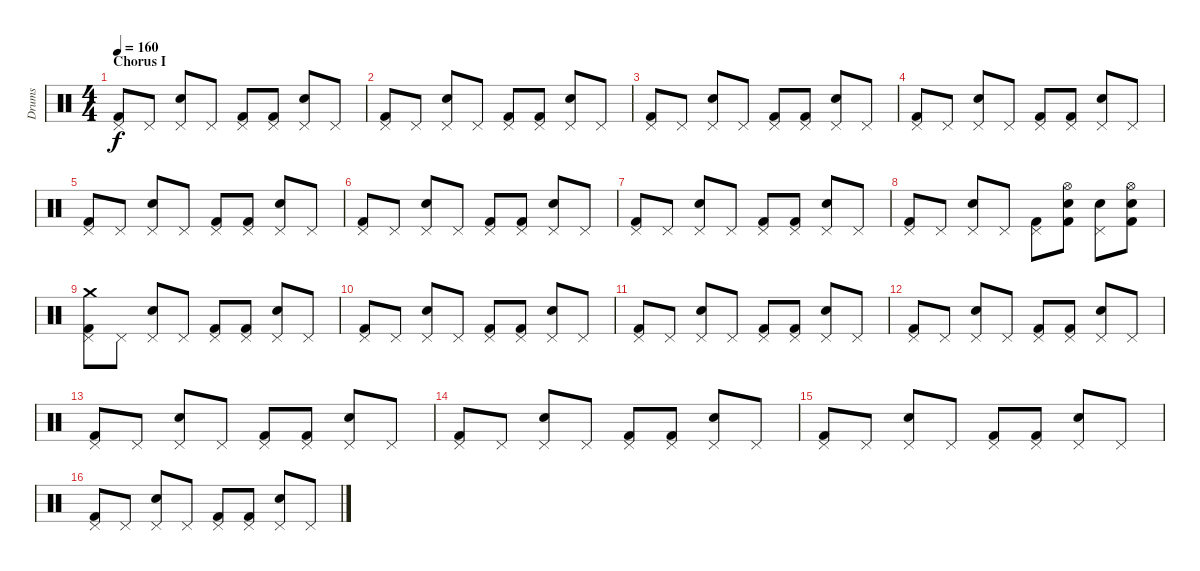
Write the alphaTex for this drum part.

\track ("Drums" "Drums") {instrument percussion}
\staff {score}
\articulation defaults
\ts (4 4)
\section ("" "Chorus I")
\tempo 160
\clef neutral
\ks c
("Kick (hit) 2" "Pedal Hi-Hat (hit)").8{dy f} "Pedal Hi-Hat (hit)".8 ("Electric Snare (hit)" "Pedal Hi-Hat (hit)").8 "Pedal Hi-Hat (hit)".8 ("Kick (hit) 2" "Pedal Hi-Hat (hit)").8 ("Kick (hit) 2" "Pedal Hi-Hat (hit)").8 ("Electric Snare (hit)" "Pedal Hi-Hat (hit)").8 "Pedal Hi-Hat (hit)".8 |
("Kick (hit) 2" "Pedal Hi-Hat (hit)").8 "Pedal Hi-Hat (hit)".8 ("Electric Snare (hit)" "Pedal Hi-Hat (hit)").8 "Pedal Hi-Hat (hit)".8 ("Kick (hit) 2" "Pedal Hi-Hat (hit)").8 ("Kick (hit) 2" "Pedal Hi-Hat (hit)").8 ("Electric Snare (hit)" "Pedal Hi-Hat (hit)").8 "Pedal Hi-Hat (hit)".8 |
("Kick (hit) 2" "Pedal Hi-Hat (hit)").8 "Pedal Hi-Hat (hit)".8 ("Electric Snare (hit)" "Pedal Hi-Hat (hit)").8 "Pedal Hi-Hat (hit)".8 ("Kick (hit) 2" "Pedal Hi-Hat (hit)").8 ("Kick (hit) 2" "Pedal Hi-Hat (hit)").8 ("Electric Snare (hit)" "Pedal Hi-Hat (hit)").8 "Pedal Hi-Hat (hit)".8 |
("Kick (hit) 2" "Pedal Hi-Hat (hit)").8 "Pedal Hi-Hat (hit)".8 ("Electric Snare (hit)" "Pedal Hi-Hat (hit)").8 "Pedal Hi-Hat (hit)".8 ("Kick (hit) 2" "Pedal Hi-Hat (hit)").8 ("Kick (hit) 2" "Pedal Hi-Hat (hit)").8 ("Electric Snare (hit)" "Pedal Hi-Hat (hit)").8 "Pedal Hi-Hat (hit)".8 |
("Kick (hit) 2" "Pedal Hi-Hat (hit)").8 "Pedal Hi-Hat (hit)".8 ("Electric Snare (hit)" "Pedal Hi-Hat (hit)").8 "Pedal Hi-Hat (hit)".8 ("Kick (hit) 2" "Pedal Hi-Hat (hit)").8 ("Kick (hit) 2" "Pedal Hi-Hat (hit)").8 ("Electric Snare (hit)" "Pedal Hi-Hat (hit)").8 "Pedal Hi-Hat (hit)".8 |
("Kick (hit) 2" "Pedal Hi-Hat (hit)").8 "Pedal Hi-Hat (hit)".8 ("Electric Snare (hit)" "Pedal Hi-Hat (hit)").8 "Pedal Hi-Hat (hit)".8 ("Kick (hit) 2" "Pedal Hi-Hat (hit)").8 ("Kick (hit) 2" "Pedal Hi-Hat (hit)").8 ("Electric Snare (hit)" "Pedal Hi-Hat (hit)").8 "Pedal Hi-Hat (hit)".8 |
("Kick (hit) 2" "Pedal Hi-Hat (hit)").8 "Pedal Hi-Hat (hit)".8 ("Electric Snare (hit)" "Pedal Hi-Hat (hit)").8 "Pedal Hi-Hat (hit)".8 ("Kick (hit) 2" "Pedal Hi-Hat (hit)").8 ("Kick (hit) 2" "Pedal Hi-Hat (hit)").8 ("Electric Snare (hit)" "Pedal Hi-Hat (hit)").8 "Pedal Hi-Hat (hit)".8 |
("Kick (hit) 2" "Pedal Hi-Hat (hit)").8 "Pedal Hi-Hat (hit)".8 ("Electric Snare (hit)" "Pedal Hi-Hat (hit)").8 "Pedal Hi-Hat (hit)".8 ("Kick (hit) 2" "Pedal Hi-Hat (hit)").8 ("Kick (hit) 2" "Electric Snare (hit)" "Hi-Hat (open)").8 ("Electric Snare (hit)" "Pedal Hi-Hat (hit)").8 ("Kick (hit) 2" "Electric Snare (hit)" "Hi-Hat (open)").8 |
("Kick (hit) 2" "Pedal Hi-Hat (hit)" "Crash medium (hit)").8 "Pedal Hi-Hat (hit)".8 ("Electric Snare (hit)" "Pedal Hi-Hat (hit)").8 "Pedal Hi-Hat (hit)".8 ("Kick (hit) 2" "Pedal Hi-Hat (hit)").8 ("Kick (hit) 2" "Pedal Hi-Hat (hit)").8 ("Electric Snare (hit)" "Pedal Hi-Hat (hit)").8 "Pedal Hi-Hat (hit)".8 |
("Kick (hit) 2" "Pedal Hi-Hat (hit)").8 "Pedal Hi-Hat (hit)".8 ("Electric Snare (hit)" "Pedal Hi-Hat (hit)").8 "Pedal Hi-Hat (hit)".8 ("Kick (hit) 2" "Pedal Hi-Hat (hit)").8 ("Kick (hit) 2" "Pedal Hi-Hat (hit)").8 ("Electric Snare (hit)" "Pedal Hi-Hat (hit)").8 "Pedal Hi-Hat (hit)".8 |
("Kick (hit) 2" "Pedal Hi-Hat (hit)").8 "Pedal Hi-Hat (hit)".8 ("Electric Snare (hit)" "Pedal Hi-Hat (hit)").8 "Pedal Hi-Hat (hit)".8 ("Kick (hit) 2" "Pedal Hi-Hat (hit)").8 ("Kick (hit) 2" "Pedal Hi-Hat (hit)").8 ("Electric Snare (hit)" "Pedal Hi-Hat (hit)").8 "Pedal Hi-Hat (hit)".8 |
("Kick (hit) 2" "Pedal Hi-Hat (hit)").8 "Pedal Hi-Hat (hit)".8 ("Electric Snare (hit)" "Pedal Hi-Hat (hit)").8 "Pedal Hi-Hat (hit)".8 ("Kick (hit) 2" "Pedal Hi-Hat (hit)").8 ("Kick (hit) 2" "Pedal Hi-Hat (hit)").8 ("Electric Snare (hit)" "Pedal Hi-Hat (hit)").8 "Pedal Hi-Hat (hit)".8 |
("Kick (hit) 2" "Pedal Hi-Hat (hit)").8 "Pedal Hi-Hat (hit)".8 ("Electric Snare (hit)" "Pedal Hi-Hat (hit)").8 "Pedal Hi-Hat (hit)".8 ("Kick (hit) 2" "Pedal Hi-Hat (hit)").8 ("Kick (hit) 2" "Pedal Hi-Hat (hit)").8 ("Electric Snare (hit)" "Pedal Hi-Hat (hit)").8 "Pedal Hi-Hat (hit)".8 |
("Kick (hit) 2" "Pedal Hi-Hat (hit)").8 "Pedal Hi-Hat (hit)".8 ("Electric Snare (hit)" "Pedal Hi-Hat (hit)").8 "Pedal Hi-Hat (hit)".8 ("Kick (hit) 2" "Pedal Hi-Hat (hit)").8 ("Kick (hit) 2" "Pedal Hi-Hat (hit)").8 ("Electric Snare (hit)" "Pedal Hi-Hat (hit)").8 "Pedal Hi-Hat (hit)".8 |
("Kick (hit) 2" "Pedal Hi-Hat (hit)").8 "Pedal Hi-Hat (hit)".8 ("Electric Snare (hit)" "Pedal Hi-Hat (hit)").8 "Pedal Hi-Hat (hit)".8 ("Kick (hit) 2" "Pedal Hi-Hat (hit)").8 ("Kick (hit) 2" "Pedal Hi-Hat (hit)").8 ("Electric Snare (hit)" "Pedal Hi-Hat (hit)").8 "Pedal Hi-Hat (hit)".8 |
("Kick (hit) 2" "Pedal Hi-Hat (hit)").8 "Pedal Hi-Hat (hit)".8 ("Electric Snare (hit)" "Pedal Hi-Hat (hit)").8 "Pedal Hi-Hat (hit)".8 ("Kick (hit) 2" "Pedal Hi-Hat (hit)").8 ("Kick (hit) 2" "Pedal Hi-Hat (hit)").8 ("Electric Snare (hit)" "Pedal Hi-Hat (hit)").8 "Pedal Hi-Hat (hit)".8
